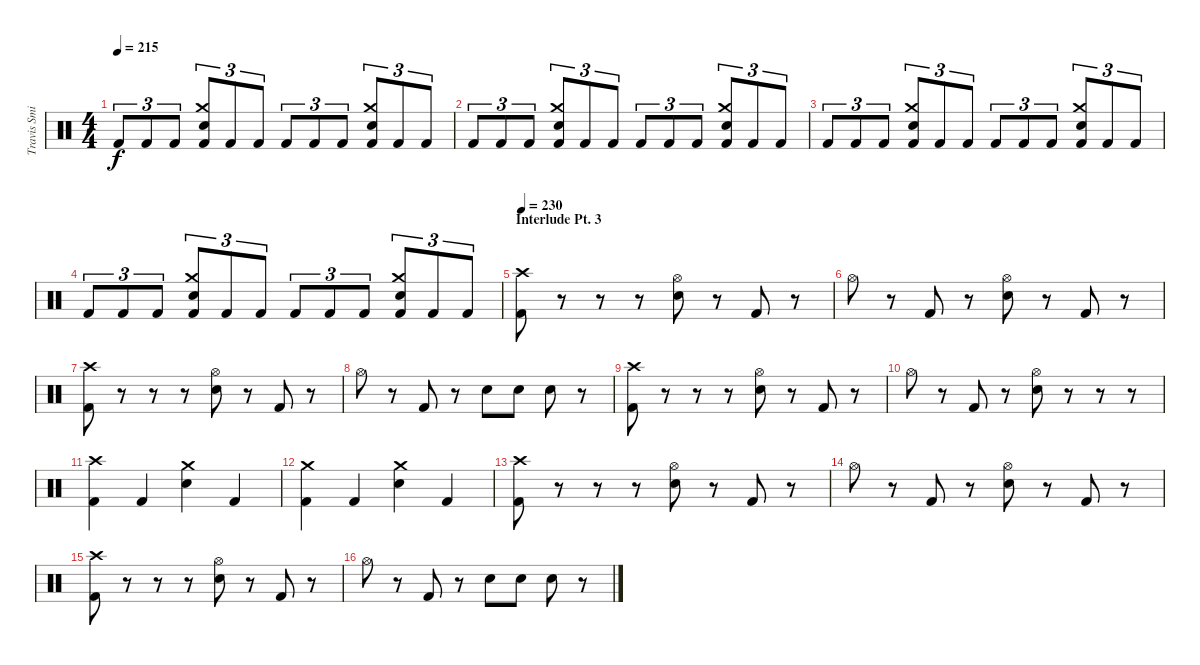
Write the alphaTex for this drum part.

\track ("Travis Smith" "Travis Smi") {instrument percussion}
\staff {score}
\articulation defaults
\ts (4 4)
\tempo 215
\clef neutral
\ks c "Kick (hit) 2".8{tu (3 2) dy f} "Kick (hit) 2".8{tu (3 2)} "Kick (hit) 2".8{tu (3 2)}
("Crash medium (hit)" "Electric Snare (hit)" "Kick (hit) 2").8{tu (3 2)} "Kick (hit) 2".8{tu (3 2)} "Kick (hit) 2".8{tu (3 2)} "Kick (hit) 2".8{tu (3 2)} "Kick (hit) 2".8{tu (3 2)} "Kick (hit) 2".8{tu (3 2)} ("Crash medium (hit)" "Electric Snare (hit)" "Kick (hit) 2").8{tu (3 2)} "Kick (hit) 2".8{tu (3 2)} "Kick (hit) 2".8{tu (3 2)} |
"Kick (hit) 2".8{tu (3 2)} "Kick (hit) 2".8{tu (3 2)} "Kick (hit) 2".8{tu (3 2)} ("Crash medium (hit)" "Electric Snare (hit)" "Kick (hit) 2").8{tu (3 2)} "Kick (hit) 2".8{tu (3 2)} "Kick (hit) 2".8{tu (3 2)} "Kick (hit) 2".8{tu (3 2)} "Kick (hit) 2".8{tu (3 2)} "Kick (hit) 2".8{tu (3 2)} ("Crash medium (hit)" "Electric Snare (hit)" "Kick (hit) 2").8{tu (3 2)} "Kick (hit) 2".8{tu (3 2)} "Kick (hit) 2".8{tu (3 2)} |
"Kick (hit) 2".8{tu (3 2)} "Kick (hit) 2".8{tu (3 2)} "Kick (hit) 2".8{tu (3 2)} ("Crash medium (hit)" "Electric Snare (hit)" "Kick (hit) 2").8{tu (3 2)} "Kick (hit) 2".8{tu (3 2)} "Kick (hit) 2".8{tu (3 2)} "Kick (hit) 2".8{tu (3 2)} "Kick (hit) 2".8{tu (3 2)} "Kick (hit) 2".8{tu (3 2)} ("Crash medium (hit)" "Electric Snare (hit)" "Kick (hit) 2").8{tu (3 2)} "Kick (hit) 2".8{tu (3 2)} "Kick (hit) 2".8{tu (3 2)} |
"Kick (hit) 2".8{tu (3 2)} "Kick (hit) 2".8{tu (3 2)} "Kick (hit) 2".8{tu (3 2)} ("Crash medium (hit)" "Electric Snare (hit)" "Kick (hit) 2").8{tu (3 2)} "Kick (hit) 2".8{tu (3 2)} "Kick (hit) 2".8{tu (3 2)} "Kick (hit) 2".8{tu (3 2)} "Kick (hit) 2".8{tu (3 2)} "Kick (hit) 2".8{tu (3 2)} ("Crash medium (hit)" "Electric Snare (hit)" "Kick (hit) 2").8{tu (3 2)} "Kick (hit) 2".8{tu (3 2)} "Kick (hit) 2".8{tu (3 2)} |
\section ("" "Interlude Pt. 3")
\tempo 230
("Crash high (hit)" "Kick (hit) 2").8 r.8 r.8 r.8 ("Hi-Hat (open)" "Electric Snare (hit)").8 r.8 "Kick (hit) 2".8 r.8 |
"Hi-Hat (open)".8 r.8 "Kick (hit) 2".8 r.8 ("Hi-Hat (open)" "Electric Snare (hit)").8 r.8 "Kick (hit) 2".8 r.8 |
("Crash high (hit)" "Kick (hit) 2").8 r.8 r.8 r.8 ("Hi-Hat (open)" "Electric Snare (hit)").8 r.8 "Kick (hit) 2".8 r.8 |
"Hi-Hat (open)".8 r.8 "Kick (hit) 2".8 r.8 "Electric Snare (hit)".8 "Electric Snare (hit)".8 "Electric Snare (hit)".8 r.8 |
("Crash high (hit)" "Kick (hit) 2").8 r.8 r.8 r.8 ("Hi-Hat (open)" "Electric Snare (hit)").8 r.8 "Kick (hit) 2".8 r.8 |
"Hi-Hat (open)".8 r.8 "Kick (hit) 2".8 r.8 ("Hi-Hat (open)" "Electric Snare (hit)").8 r.8 r.8 r.8 |
("Crash high (hit)" "Kick (hit) 2").4 "Kick (hit) 2".4 ("Crash medium (hit)" "Electric Snare (hit)").4 "Kick (hit) 2".4 |
("Crash medium (hit)" "Kick (hit) 2").4 "Kick (hit) 2".4 ("Crash medium (hit)" "Electric Snare (hit)").4 "Kick (hit) 2".4 |
("Crash high (hit)" "Kick (hit) 2").8 r.8 r.8 r.8 ("Hi-Hat (open)" "Electric Snare (hit)").8 r.8 "Kick (hit) 2".8 r.8 |
"Hi-Hat (open)".8 r.8 "Kick (hit) 2".8 r.8 ("Hi-Hat (open)" "Electric Snare (hit)").8 r.8 "Kick (hit) 2".8 r.8 |
("Crash high (hit)" "Kick (hit) 2").8 r.8 r.8 r.8 ("Hi-Hat (open)" "Electric Snare (hit)").8 r.8 "Kick (hit) 2".8 r.8 |
"Hi-Hat (open)".8 r.8 "Kick (hit) 2".8 r.8 "Electric Snare (hit)".8 "Electric Snare (hit)".8 "Electric Snare (hit)".8 r.8
